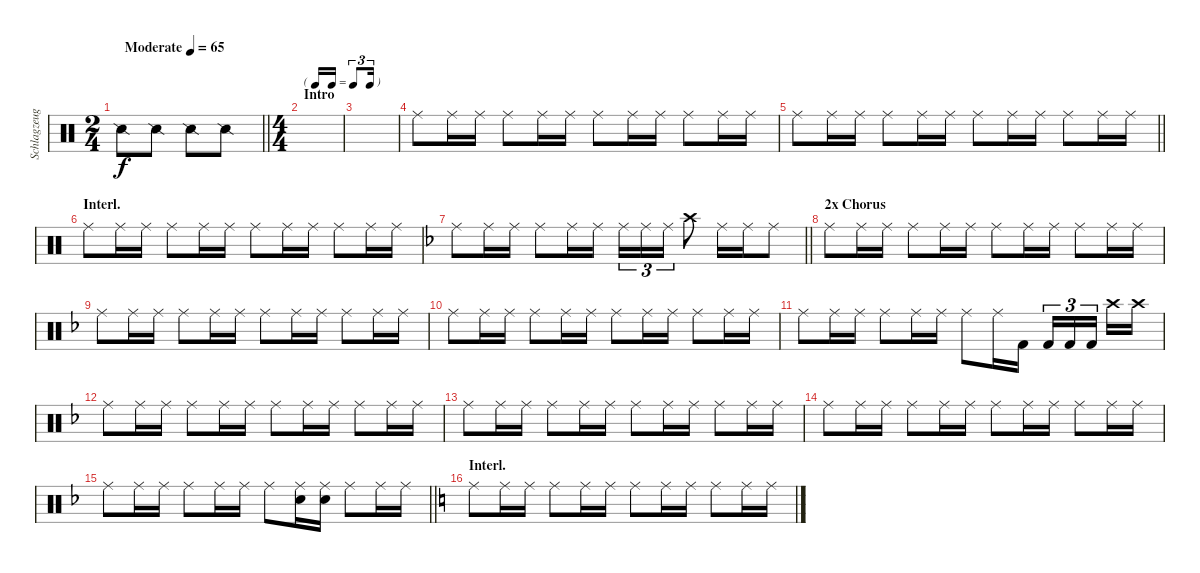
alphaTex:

\track ("Schlagzeug" "Schlagzeug") {instrument percussion}
\staff {score}
\articulation defaults
\ts (2 4)
\tempo (65 "Moderate")
\clef neutral
\barLineRight lightlight
\ks c "Snare (side stick) 2".8{dy f} "Snare (side stick) 2".8 "Snare (side stick) 2".8 "Snare (side stick) 2".8
|
\ts (4 4)
\tf triplet16th
\section ("" "Intro")
|
|
"Ride (middle)".8 "Ride (middle)".16 "Ride (middle)".16 "Ride (middle)".8 "Ride (middle)".16 "Ride (middle)".16 "Ride (middle)".8 "Ride (middle)".16 "Ride (middle)".16 "Ride (middle)".8 "Ride (middle)".16 "Ride (middle)".16 |
\barLineRight lightlight "Ride (middle)".8 "Ride (middle)".16 "Ride (middle)".16 "Ride (middle)".8 "Ride (middle)".16 "Ride (middle)".16 "Ride (middle)".8 "Ride (middle)".16 "Ride (middle)".16 "Ride (middle)".8 "Ride (middle)".16 "Ride (middle)".16
|
\section ("" "Interl.")
"Ride (middle)".8 "Ride (middle)".16 "Ride (middle)".16 "Ride (middle)".8 "Ride (middle)".16 "Ride (middle)".16 "Ride (middle)".8 "Ride (middle)".16 "Ride (middle)".16 "Ride (middle)".8 "Ride (middle)".16 "Ride (middle)".16 |
\barLineRight lightlight
\ks f "Ride (middle)".8 "Ride (middle)".16 "Ride (middle)".16 "Ride (middle)".8 "Ride (middle)".16 "Ride (middle)".16 "Ride (middle)".16{tu (3 2)} "Ride (middle)".16{tu (3 2)} "Ride (middle)".16{tu (3 2)} "Crash high (hit)".8 "Ride (middle)".16 "Ride (middle)".16 "Ride (middle)".8
|
\section ("" "2x Chorus ")
"Ride (middle)".8 "Ride (middle)".16 "Ride (middle)".16 "Ride (middle)".8 "Ride (middle)".16 "Ride (middle)".16 "Ride (middle)".8 "Ride (middle)".16 "Ride (middle)".16 "Ride (middle)".8 "Ride (middle)".16 "Ride (middle)".16 |
"Ride (middle)".8 "Ride (middle)".16 "Ride (middle)".16 "Ride (middle)".8 "Ride (middle)".16 "Ride (middle)".16 "Ride (middle)".8 "Ride (middle)".16 "Ride (middle)".16 "Ride (middle)".8 "Ride (middle)".16 "Ride (middle)".16 |
"Ride (middle)".8 "Ride (middle)".16 "Ride (middle)".16 "Ride (middle)".8 "Ride (middle)".16 "Ride (middle)".16 "Ride (middle)".8 "Ride (middle)".16 "Ride (middle)".16 "Ride (middle)".8 "Ride (middle)".16 "Ride (middle)".16 |
"Ride (middle)".8 "Ride (middle)".16 "Ride (middle)".16 "Ride (middle)".8 "Ride (middle)".16 "Ride (middle)".16 "Ride (middle)".8 "Ride (middle)".16 "Kick (hit) 2".16 "Kick (hit) 2".16{tu (3 2)} "Kick (hit) 2".16{tu (3 2)} "Kick (hit) 2".16{tu (3 2) beam splitsecondary} "Crash high (hit)".16 "Crash high (hit)".16 |
"Ride (middle)".8 "Ride (middle)".16 "Ride (middle)".16 "Ride (middle)".8 "Ride (middle)".16 "Ride (middle)".16 "Ride (middle)".8 "Ride (middle)".16 "Ride (middle)".16 "Ride (middle)".8 "Ride (middle)".16 "Ride (middle)".16 |
"Ride (middle)".8 "Ride (middle)".16 "Ride (middle)".16 "Ride (middle)".8 "Ride (middle)".16 "Ride (middle)".16 "Ride (middle)".8 "Ride (middle)".16 "Ride (middle)".16 "Ride (middle)".8 "Ride (middle)".16 "Ride (middle)".16 |
"Ride (middle)".8 "Ride (middle)".16 "Ride (middle)".16 "Ride (middle)".8 "Ride (middle)".16 "Ride (middle)".16 "Ride (middle)".8 "Ride (middle)".16 "Ride (middle)".16 "Ride (middle)".8 "Ride (middle)".16 "Ride (middle)".16 |
\barLineRight lightlight "Ride (middle)".8 "Ride (middle)".16 "Ride (middle)".16 "Ride (middle)".8 "Ride (middle)".16 "Ride (middle)".16 "Ride (middle)".8
("Ride (middle)" "Electric Snare (hit)").16 ("Ride (middle)" "Electric Snare (hit)").16 "Ride (middle)".8 "Ride (middle)".16 "Ride (middle)".16 |
\section ("" "Interl.")
\ks c "Ride (middle)".8 "Ride (middle)".16 "Ride (middle)".16 "Ride (middle)".8 "Ride (middle)".16 "Ride (middle)".16 "Ride (middle)".8 "Ride (middle)".16 "Ride (middle)".16 "Ride (middle)".8 "Ride (middle)".16 "Ride (middle)".16
